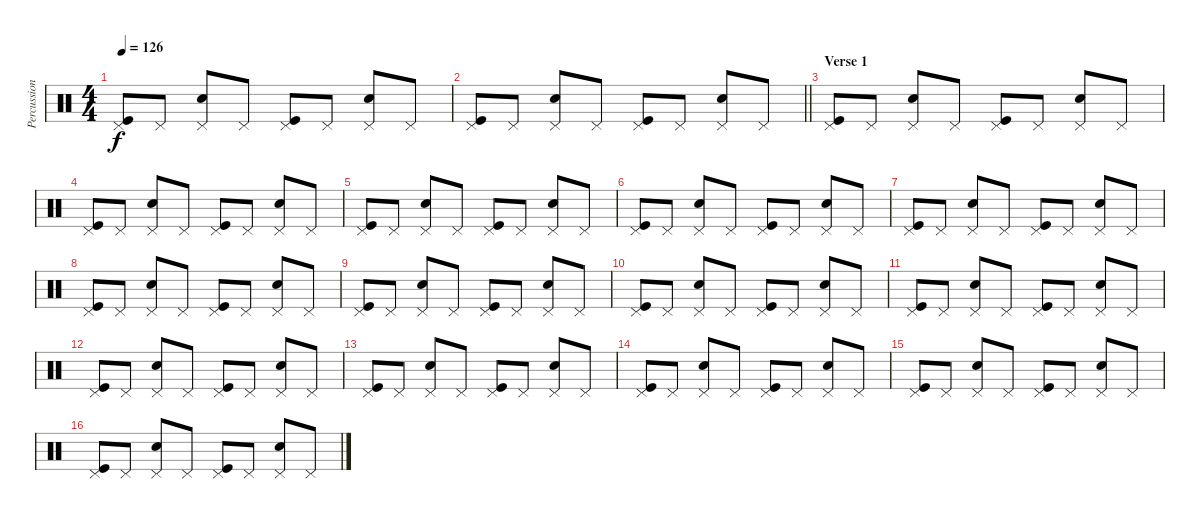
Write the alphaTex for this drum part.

\track ("Percussion" "Percussion") {instrument percussion}
\staff {score}
\articulation defaults
\ts (4 4)
\tempo 126
\clef neutral
\ks c
("Pedal Hi-Hat (hit)" "Kick (hit)").8{dy f} "Pedal Hi-Hat (hit)".8 ("Pedal Hi-Hat (hit)" "Snare (hit) 2").8 "Pedal Hi-Hat (hit)".8 ("Pedal Hi-Hat (hit)" "Kick (hit)").8 "Pedal Hi-Hat (hit)".8 ("Pedal Hi-Hat (hit)" "Snare (hit) 2").8 "Pedal Hi-Hat (hit)".8 |
\barLineRight lightlight
("Pedal Hi-Hat (hit)" "Kick (hit)").8 "Pedal Hi-Hat (hit)".8 ("Pedal Hi-Hat (hit)" "Snare (hit) 2").8 "Pedal Hi-Hat (hit)".8 ("Pedal Hi-Hat (hit)" "Kick (hit)").8 "Pedal Hi-Hat (hit)".8 ("Pedal Hi-Hat (hit)" "Snare (hit) 2").8 "Pedal Hi-Hat (hit)".8 |
\section ("" "Verse 1")
("Pedal Hi-Hat (hit)" "Kick (hit)").8 "Pedal Hi-Hat (hit)".8 ("Pedal Hi-Hat (hit)" "Snare (hit) 2").8 "Pedal Hi-Hat (hit)".8 ("Pedal Hi-Hat (hit)" "Kick (hit)").8 "Pedal Hi-Hat (hit)".8 ("Pedal Hi-Hat (hit)" "Snare (hit) 2").8 "Pedal Hi-Hat (hit)".8 |
("Pedal Hi-Hat (hit)" "Kick (hit)").8 "Pedal Hi-Hat (hit)".8 ("Pedal Hi-Hat (hit)" "Snare (hit) 2").8 "Pedal Hi-Hat (hit)".8 ("Pedal Hi-Hat (hit)" "Kick (hit)").8 "Pedal Hi-Hat (hit)".8 ("Pedal Hi-Hat (hit)" "Snare (hit) 2").8 "Pedal Hi-Hat (hit)".8 |
("Pedal Hi-Hat (hit)" "Kick (hit)").8 "Pedal Hi-Hat (hit)".8 ("Pedal Hi-Hat (hit)" "Snare (hit) 2").8 "Pedal Hi-Hat (hit)".8 ("Pedal Hi-Hat (hit)" "Kick (hit)").8 "Pedal Hi-Hat (hit)".8 ("Pedal Hi-Hat (hit)" "Snare (hit) 2").8 "Pedal Hi-Hat (hit)".8 |
("Pedal Hi-Hat (hit)" "Kick (hit)").8 "Pedal Hi-Hat (hit)".8 ("Pedal Hi-Hat (hit)" "Snare (hit) 2").8 "Pedal Hi-Hat (hit)".8 ("Pedal Hi-Hat (hit)" "Kick (hit)").8 "Pedal Hi-Hat (hit)".8 ("Pedal Hi-Hat (hit)" "Snare (hit) 2").8 "Pedal Hi-Hat (hit)".8 |
("Pedal Hi-Hat (hit)" "Kick (hit)").8 "Pedal Hi-Hat (hit)".8 ("Pedal Hi-Hat (hit)" "Snare (hit) 2").8 "Pedal Hi-Hat (hit)".8 ("Pedal Hi-Hat (hit)" "Kick (hit)").8 "Pedal Hi-Hat (hit)".8 ("Pedal Hi-Hat (hit)" "Snare (hit) 2").8 "Pedal Hi-Hat (hit)".8 |
("Pedal Hi-Hat (hit)" "Kick (hit)").8 "Pedal Hi-Hat (hit)".8 ("Pedal Hi-Hat (hit)" "Snare (hit) 2").8 "Pedal Hi-Hat (hit)".8 ("Pedal Hi-Hat (hit)" "Kick (hit)").8 "Pedal Hi-Hat (hit)".8 ("Pedal Hi-Hat (hit)" "Snare (hit) 2").8 "Pedal Hi-Hat (hit)".8 |
("Pedal Hi-Hat (hit)" "Kick (hit)").8 "Pedal Hi-Hat (hit)".8 ("Pedal Hi-Hat (hit)" "Snare (hit) 2").8 "Pedal Hi-Hat (hit)".8 ("Pedal Hi-Hat (hit)" "Kick (hit)").8 "Pedal Hi-Hat (hit)".8 ("Pedal Hi-Hat (hit)" "Snare (hit) 2").8 "Pedal Hi-Hat (hit)".8 |
("Pedal Hi-Hat (hit)" "Kick (hit)").8 "Pedal Hi-Hat (hit)".8 ("Pedal Hi-Hat (hit)" "Snare (hit) 2").8 "Pedal Hi-Hat (hit)".8 ("Pedal Hi-Hat (hit)" "Kick (hit)").8 "Pedal Hi-Hat (hit)".8 ("Pedal Hi-Hat (hit)" "Snare (hit) 2").8 "Pedal Hi-Hat (hit)".8 |
("Pedal Hi-Hat (hit)" "Kick (hit)").8 "Pedal Hi-Hat (hit)".8 ("Pedal Hi-Hat (hit)" "Snare (hit) 2").8 "Pedal Hi-Hat (hit)".8 ("Pedal Hi-Hat (hit)" "Kick (hit)").8 "Pedal Hi-Hat (hit)".8 ("Pedal Hi-Hat (hit)" "Snare (hit) 2").8 "Pedal Hi-Hat (hit)".8 |
("Pedal Hi-Hat (hit)" "Kick (hit)").8 "Pedal Hi-Hat (hit)".8 ("Pedal Hi-Hat (hit)" "Snare (hit) 2").8 "Pedal Hi-Hat (hit)".8 ("Pedal Hi-Hat (hit)" "Kick (hit)").8 "Pedal Hi-Hat (hit)".8 ("Pedal Hi-Hat (hit)" "Snare (hit) 2").8 "Pedal Hi-Hat (hit)".8 |
("Pedal Hi-Hat (hit)" "Kick (hit)").8 "Pedal Hi-Hat (hit)".8 ("Pedal Hi-Hat (hit)" "Snare (hit) 2").8 "Pedal Hi-Hat (hit)".8 ("Pedal Hi-Hat (hit)" "Kick (hit)").8 "Pedal Hi-Hat (hit)".8 ("Pedal Hi-Hat (hit)" "Snare (hit) 2").8 "Pedal Hi-Hat (hit)".8 |
("Pedal Hi-Hat (hit)" "Kick (hit)").8 "Pedal Hi-Hat (hit)".8 ("Pedal Hi-Hat (hit)" "Snare (hit) 2").8 "Pedal Hi-Hat (hit)".8 ("Pedal Hi-Hat (hit)" "Kick (hit)").8 "Pedal Hi-Hat (hit)".8 ("Pedal Hi-Hat (hit)" "Snare (hit) 2").8 "Pedal Hi-Hat (hit)".8 |
("Pedal Hi-Hat (hit)" "Kick (hit)").8 "Pedal Hi-Hat (hit)".8 ("Pedal Hi-Hat (hit)" "Snare (hit) 2").8 "Pedal Hi-Hat (hit)".8 ("Pedal Hi-Hat (hit)" "Kick (hit)").8 "Pedal Hi-Hat (hit)".8 ("Pedal Hi-Hat (hit)" "Snare (hit) 2").8 "Pedal Hi-Hat (hit)".8 |
("Pedal Hi-Hat (hit)" "Kick (hit)").8 "Pedal Hi-Hat (hit)".8 ("Pedal Hi-Hat (hit)" "Snare (hit) 2").8 "Pedal Hi-Hat (hit)".8 ("Pedal Hi-Hat (hit)" "Kick (hit)").8 "Pedal Hi-Hat (hit)".8 ("Pedal Hi-Hat (hit)" "Snare (hit) 2").8 "Pedal Hi-Hat (hit)".8
